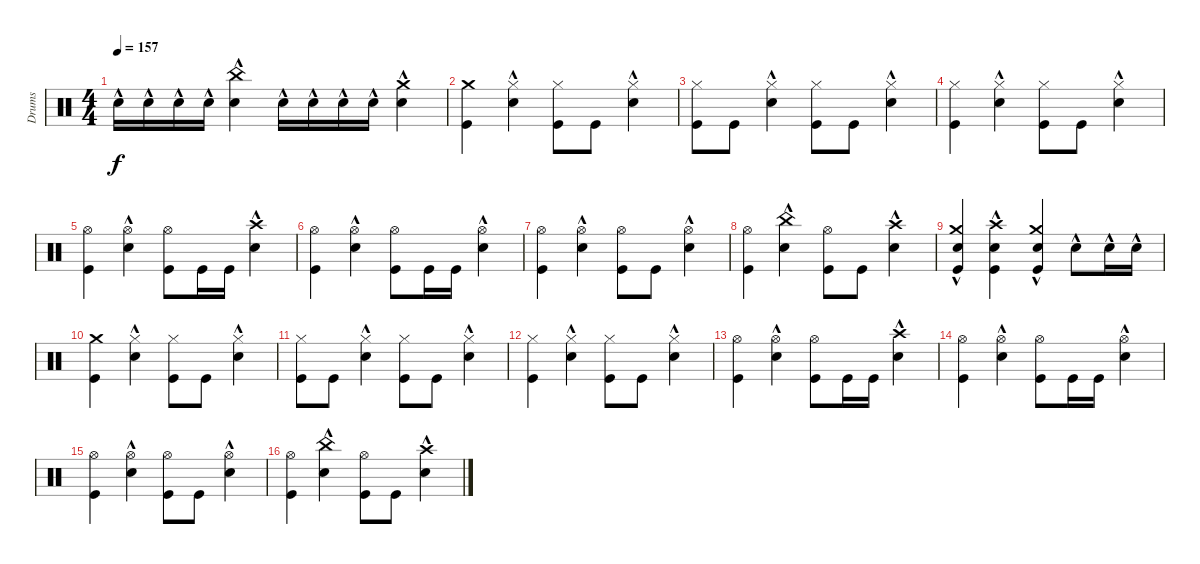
\track ("Drums" "Drums") {solo instrument percussion}
\staff {score}
\articulation defaults
\ts (4 4)
\tempo 157
\clef neutral
\ks c "Snare (hit) 2"{hac}.16{dy f} "Snare (hit) 2"{hac}.16 "Snare (hit) 2"{hac}.16 "Snare (hit) 2"{hac}.16
("Snare (hit) 2"{hac} "China (hit)"{hac}).4 "Snare (hit) 2"{hac}.16 "Snare (hit) 2"{hac}.16 "Snare (hit) 2"{hac}.16 "Snare (hit) 2"{hac}.16 ("Snare (hit) 2"{hac} "Crash medium (hit)").4 |
("Crash medium (hit)" "Kick (hit)").4 ("Snare (hit) 2"{hac} "Hi-Hat (closed)").4 ("Kick (hit)" "Hi-Hat (closed)").8 "Kick (hit)".8 ("Snare (hit) 2"{hac} "Hi-Hat (closed)").4 |
("Kick (hit)" "Hi-Hat (closed)").8 "Kick (hit)".8 ("Snare (hit) 2"{hac} "Hi-Hat (closed)").4 ("Kick (hit)" "Hi-Hat (closed)").8 "Kick (hit)".8 ("Snare (hit) 2"{hac} "Hi-Hat (closed)").4 |
("Kick (hit)" "Hi-Hat (closed)").4 ("Snare (hit) 2"{hac} "Hi-Hat (closed)").4 ("Kick (hit)" "Hi-Hat (closed)").8 "Kick (hit)".8 ("Snare (hit) 2"{hac} "Hi-Hat (closed)").4 |
("Kick (hit)" "Hi-Hat (open)").4 ("Snare (hit) 2"{hac} "Hi-Hat (open)").4 ("Kick (hit)" "Hi-Hat (open)").8 "Kick (hit)".16 "Kick (hit)".16 ("Snare (hit) 2"{hac} "Crash high (hit)"{hac}).4 |
("Kick (hit)" "Hi-Hat (open)").4 ("Snare (hit) 2"{hac} "Hi-Hat (open)").4 ("Kick (hit)" "Hi-Hat (open)").8 "Kick (hit)".16 "Kick (hit)".16 ("Snare (hit) 2"{hac} "Hi-Hat (open)").4 |
("Kick (hit)" "Hi-Hat (open)").4 ("Snare (hit) 2"{hac} "Hi-Hat (open)").4 ("Kick (hit)" "Hi-Hat (open)").8 "Kick (hit)".8 ("Snare (hit) 2"{hac} "Hi-Hat (open)").4 |
("Kick (hit)" "Hi-Hat (open)").4 ("Snare (hit) 2"{hac} "China (hit)"{hac}).4 ("Kick (hit)" "Hi-Hat (open)").8 "Kick (hit)".8 ("Snare (hit) 2"{hac} "Crash high (hit)"{hac}).4 |
("Snare (hit) 2"{hac} "Kick (hit)" "Crash medium (hit)").4 ("Kick (hit)" "Snare (hit) 2"{hac} "Crash high (hit)"{hac}).4 ("Snare (hit) 2"{hac} "Kick (hit)" "Crash medium (hit)").4 "Snare (hit) 2"{hac}.8 "Snare (hit) 2"{hac}.16 "Snare (hit) 2"{hac}.16 |
("Crash medium (hit)" "Kick (hit)").4 ("Snare (hit) 2"{hac} "Hi-Hat (closed)").4 ("Kick (hit)" "Hi-Hat (closed)").8 "Kick (hit)".8 ("Snare (hit) 2"{hac} "Hi-Hat (closed)").4 |
("Kick (hit)" "Hi-Hat (closed)").8 "Kick (hit)".8 ("Snare (hit) 2"{hac} "Hi-Hat (closed)").4 ("Kick (hit)" "Hi-Hat (closed)").8 "Kick (hit)".8 ("Snare (hit) 2"{hac} "Hi-Hat (closed)").4 |
("Kick (hit)" "Hi-Hat (closed)").4 ("Snare (hit) 2"{hac} "Hi-Hat (closed)").4 ("Kick (hit)" "Hi-Hat (closed)").8 "Kick (hit)".8 ("Snare (hit) 2"{hac} "Hi-Hat (closed)").4 |
("Kick (hit)" "Hi-Hat (open)").4 ("Snare (hit) 2"{hac} "Hi-Hat (open)").4 ("Kick (hit)" "Hi-Hat (open)").8 "Kick (hit)".16 "Kick (hit)".16 ("Snare (hit) 2"{hac} "Crash high (hit)"{hac}).4 |
("Kick (hit)" "Hi-Hat (open)").4 ("Snare (hit) 2"{hac} "Hi-Hat (open)").4 ("Kick (hit)" "Hi-Hat (open)").8 "Kick (hit)".16 "Kick (hit)".16 ("Snare (hit) 2"{hac} "Hi-Hat (open)").4 |
("Kick (hit)" "Hi-Hat (open)").4 ("Snare (hit) 2"{hac} "Hi-Hat (open)").4 ("Kick (hit)" "Hi-Hat (open)").8 "Kick (hit)".8 ("Snare (hit) 2"{hac} "Hi-Hat (open)").4 |
("Kick (hit)" "Hi-Hat (open)").4 ("Snare (hit) 2"{hac} "China (hit)"{hac}).4 ("Kick (hit)" "Hi-Hat (open)").8 "Kick (hit)".8 ("Snare (hit) 2"{hac} "Crash high (hit)"{hac}).4
